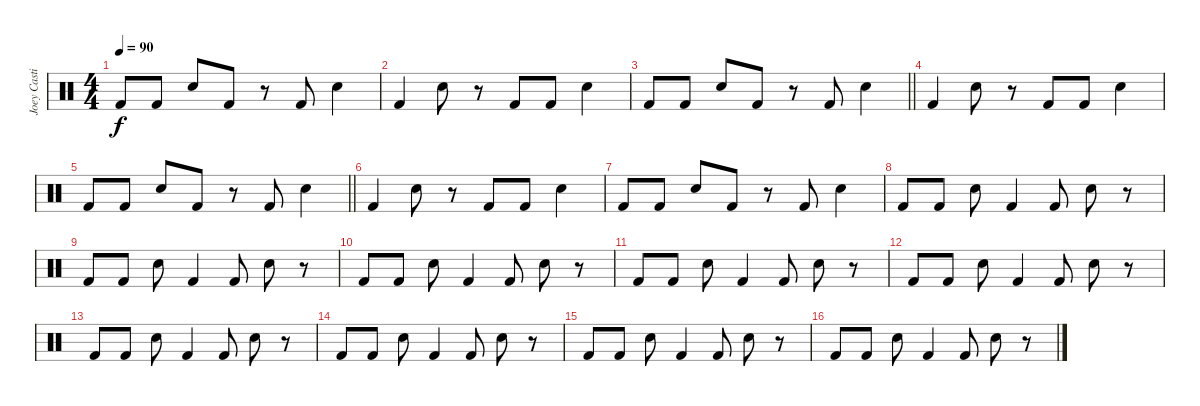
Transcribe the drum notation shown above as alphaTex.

\track ("Joey Castillo" "Joey Casti") {instrument percussion}
\staff {score}
\articulation defaults
\ts (4 4)
\tempo 90
\clef neutral
\ks c "Kick (hit) 2".8{dy f} "Kick (hit) 2".8 "Electric Snare (hit)".8 "Kick (hit) 2".8
r.8 "Kick (hit) 2".8 "Electric Snare (hit)".4 |
"Kick (hit) 2".4 "Electric Snare (hit)".8 r.8 "Kick (hit) 2".8 "Kick (hit) 2".8 "Electric Snare (hit)".4 |
\barLineRight lightlight "Kick (hit) 2".8 "Kick (hit) 2".8 "Electric Snare (hit)".8 "Kick (hit) 2".8
r.8 "Kick (hit) 2".8 "Electric Snare (hit)".4 |
"Kick (hit) 2".4 "Electric Snare (hit)".8 r.8 "Kick (hit) 2".8 "Kick (hit) 2".8 "Electric Snare (hit)".4 |
\barLineRight lightlight "Kick (hit) 2".8 "Kick (hit) 2".8 "Electric Snare (hit)".8 "Kick (hit) 2".8
r.8 "Kick (hit) 2".8 "Electric Snare (hit)".4 |
"Kick (hit) 2".4 "Electric Snare (hit)".8 r.8 "Kick (hit) 2".8 "Kick (hit) 2".8 "Electric Snare (hit)".4 |
"Kick (hit) 2".8 "Kick (hit) 2".8 "Electric Snare (hit)".8 "Kick (hit) 2".8 r.8 "Kick (hit) 2".8 "Electric Snare (hit)".4 |
"Kick (hit) 2".8 "Kick (hit) 2".8 "Electric Snare (hit)".8 "Kick (hit) 2".4 "Kick (hit) 2".8 "Electric Snare (hit)".8 r.8 |
"Kick (hit) 2".8 "Kick (hit) 2".8 "Electric Snare (hit)".8 "Kick (hit) 2".4 "Kick (hit) 2".8 "Electric Snare (hit)".8 r.8 |
"Kick (hit) 2".8 "Kick (hit) 2".8 "Electric Snare (hit)".8 "Kick (hit) 2".4 "Kick (hit) 2".8 "Electric Snare (hit)".8 r.8 |
"Kick (hit) 2".8 "Kick (hit) 2".8 "Electric Snare (hit)".8 "Kick (hit) 2".4 "Kick (hit) 2".8 "Electric Snare (hit)".8 r.8 |
"Kick (hit) 2".8 "Kick (hit) 2".8 "Electric Snare (hit)".8 "Kick (hit) 2".4 "Kick (hit) 2".8 "Electric Snare (hit)".8 r.8 |
"Kick (hit) 2".8 "Kick (hit) 2".8 "Electric Snare (hit)".8 "Kick (hit) 2".4 "Kick (hit) 2".8 "Electric Snare (hit)".8 r.8 |
"Kick (hit) 2".8 "Kick (hit) 2".8 "Electric Snare (hit)".8 "Kick (hit) 2".4 "Kick (hit) 2".8 "Electric Snare (hit)".8 r.8 |
"Kick (hit) 2".8 "Kick (hit) 2".8 "Electric Snare (hit)".8 "Kick (hit) 2".4 "Kick (hit) 2".8 "Electric Snare (hit)".8 r.8 |
"Kick (hit) 2".8 "Kick (hit) 2".8 "Electric Snare (hit)".8 "Kick (hit) 2".4 "Kick (hit) 2".8 "Electric Snare (hit)".8 r.8
